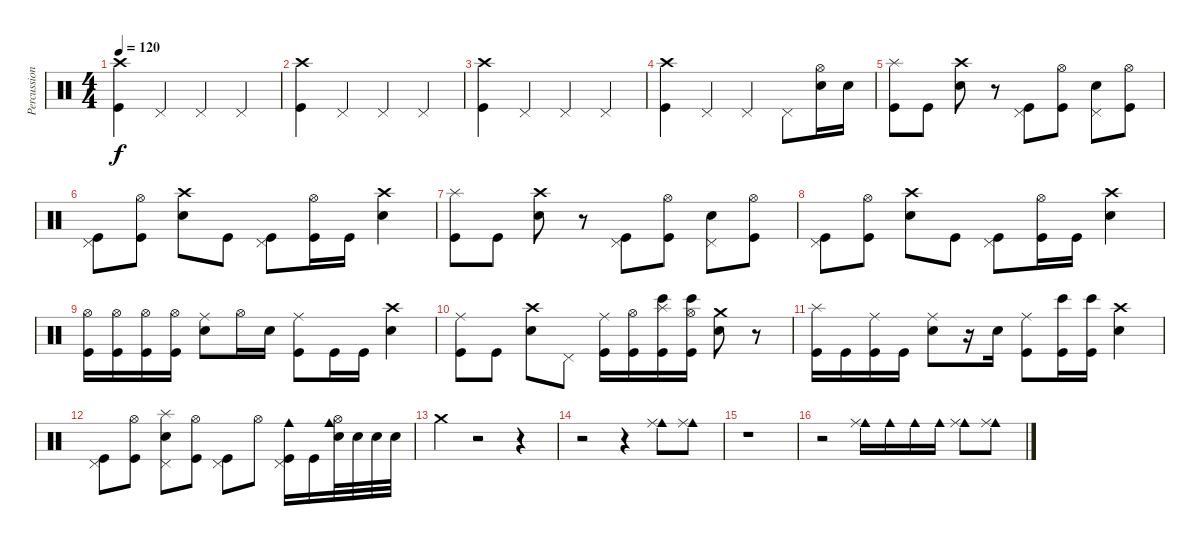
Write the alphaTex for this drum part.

\track ("Percussions" "Percussion") {instrument percussion}
\staff {score}
\articulation defaults
\ts (4 4)
\tempo 120
\clef neutral
\ks c
("Crash high (hit)" "Kick (hit)").4{dy f} "Pedal Hi-Hat (hit)".4 "Pedal Hi-Hat (hit)".4 "Pedal Hi-Hat (hit)".4 |
("Crash high (hit)" "Kick (hit)").4 "Pedal Hi-Hat (hit)".4 "Pedal Hi-Hat (hit)".4 "Pedal Hi-Hat (hit)".4 |
("Crash high (hit)" "Kick (hit)").4 "Pedal Hi-Hat (hit)".4 "Pedal Hi-Hat (hit)".4 "Pedal Hi-Hat (hit)".4 |
("Crash high (hit)" "Kick (hit)").4 "Pedal Hi-Hat (hit)".4 "Pedal Hi-Hat (hit)".4 "Pedal Hi-Hat (hit)".8 ("Hi-Hat (open)" "Snare (hit) 2").16 "Snare (hit) 2".16 |
("Splash (hit)" "Kick (hit)").8 "Kick (hit)".8 ("Crash high (hit)" "Snare (hit) 2").8 r.8 ("Pedal Hi-Hat (hit)" "Kick (hit)").8 ("Hi-Hat (open)" "Kick (hit)").8 ("Pedal Hi-Hat (hit)" "Snare (hit) 2").8 ("Hi-Hat (open)" "Kick (hit)").8 |
("Pedal Hi-Hat (hit)" "Kick (hit)").8 ("Hi-Hat (open)" "Kick (hit)").8 ("Crash high (hit)" "Snare (hit) 2").8 "Kick (hit)".8 ("Pedal Hi-Hat (hit)" "Kick (hit)").8 ("Hi-Hat (open)" "Kick (hit)").16 "Kick (hit)".16 ("Crash high (hit)" "Snare (hit) 2").4 |
("Splash (hit)" "Kick (hit)").8 "Kick (hit)".8 ("Crash high (hit)" "Snare (hit) 2").8 r.8 ("Pedal Hi-Hat (hit)" "Kick (hit)").8 ("Hi-Hat (open)" "Kick (hit)").8 ("Pedal Hi-Hat (hit)" "Snare (hit) 2").8 ("Hi-Hat (open)" "Kick (hit)").8 |
("Pedal Hi-Hat (hit)" "Kick (hit)").8 ("Hi-Hat (open)" "Kick (hit)").8 ("Crash high (hit)" "Snare (hit) 2").8 "Kick (hit)".8 ("Pedal Hi-Hat (hit)" "Kick (hit)").8 ("Hi-Hat (open)" "Kick (hit)").16 "Kick (hit)".16 ("Crash high (hit)" "Snare (hit) 2").4 |
("Hi-Hat (open)" "Kick (hit)").16 ("Hi-Hat (open)" "Kick (hit)").16 ("Hi-Hat (open)" "Kick (hit)").16 ("Hi-Hat (open)" "Kick (hit)").16 ("Ride (middle)" "Snare (hit) 2").8 "Hi-Hat (open)".16 "Snare (hit) 2".16 ("Ride (middle)" "Kick (hit)").8 "Kick (hit)".16 "Kick (hit)".16 ("Crash high (hit)" "Snare (hit) 2").4 |
("Ride (middle)" "Kick (hit)").8 "Kick (hit)".8 ("Crash high (hit)" "Snare (hit) 2").8 "Pedal Hi-Hat (hit)".8 ("Ride (middle)" "Kick (hit)").16 ("Hi-Hat (open)" "Kick (hit)").16 ("Splash (hit)" "Bongo High (hit)" "Kick (hit)").16 ("Hi-Hat (open)" "Bongo High (hit)" "Kick (hit)").16 ("Crash medium (hit)" "Snare (hit) 2").8 r.8 |
("Splash (hit)" "Kick (hit)").16 "Kick (hit)".16 ("Ride (middle)" "Kick (hit)").16 "Kick (hit)".16 ("Ride (middle)" "Snare (hit) 2").8 r.16 "Snare (hit) 2".16 ("Ride (middle)" "Kick (hit)").8 ("Bongo High (hit)" "Kick (hit)").16 ("Bongo High (hit)" "Kick (hit)").16 ("Crash high (hit)" "Snare (hit) 2").4 |
("Pedal Hi-Hat (hit)" "Kick (hit)").8 ("Hi-Hat (open)" "Kick (hit)").8 ("Pedal Hi-Hat (hit)" "Splash (hit)" "Snare (hit) 2").8 ("Hi-Hat (open)" "Kick (hit)").8 ("Pedal Hi-Hat (hit)" "Kick (hit)").8 "Hi-Hat (open)".8 ("Pedal Hi-Hat (hit)" "Cowbell medium (hit)" "Kick (hit)").16 "Kick (hit)".16 ("Hi-Hat (open)" "Cowbell medium (hit)" "Snare (hit) 2").32 "Snare (hit) 2".32 "Snare (hit) 2".32 "Snare (hit) 2".32 |
"Crash medium (hit)".4 r.2 r.4 |
r.2 r.4 ("Cowbell medium (hit)" "Ride (middle)").8 ("Cowbell medium (hit)" "Ride (middle)").8 |
r.1 |
r.2 ("Cowbell medium (hit)" "Ride (middle)").16 "Cowbell medium (hit)".16 "Cowbell medium (hit)".16 "Cowbell medium (hit)".16 ("Cowbell medium (hit)" "Ride (middle)").8 ("Cowbell medium (hit)" "Ride (middle)").8
